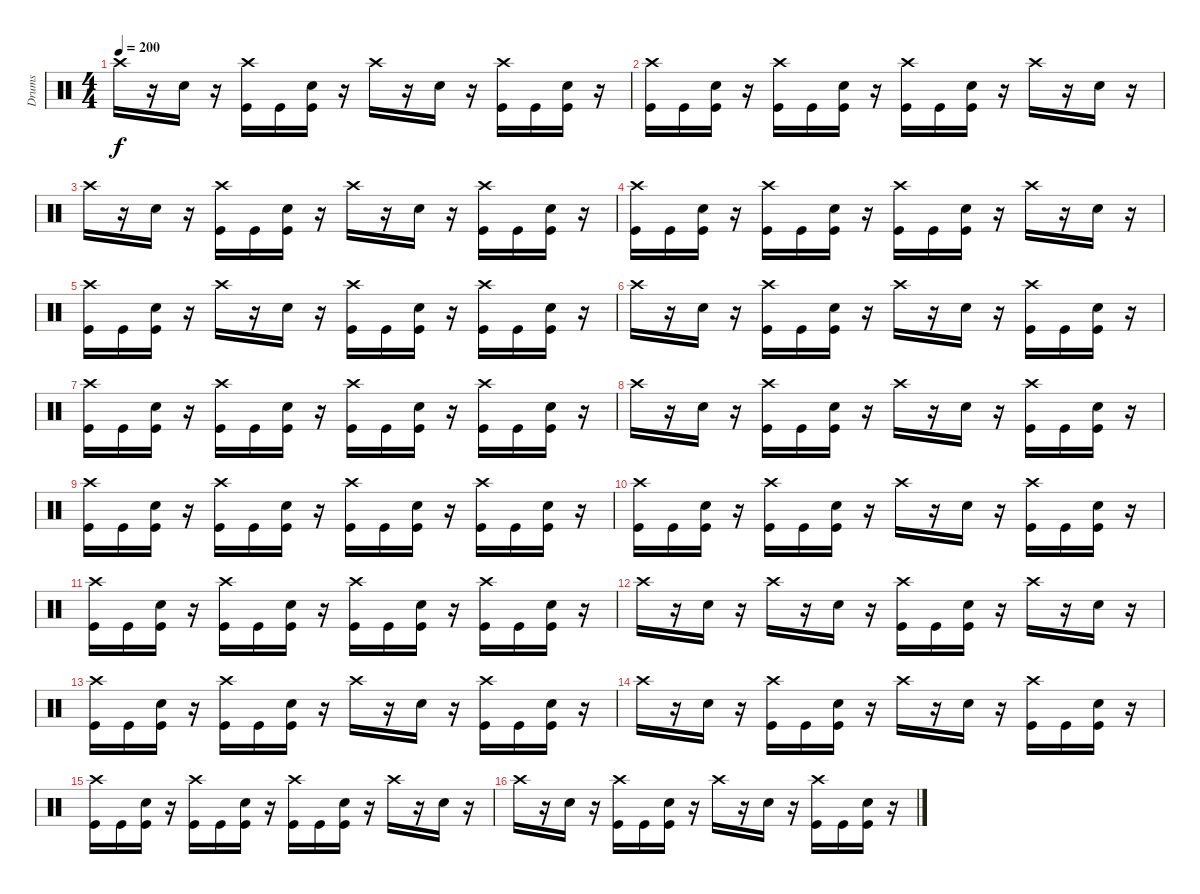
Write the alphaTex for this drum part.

\track ("Drums" "Drums") {instrument percussion}
\staff {score}
\articulation defaults
\ts (4 4)
\tempo 200
\clef neutral
\ks c "Crash high (hit)".16{dy f}
r.16 "Snare (hit) 2".16 r.16 ("Crash high (hit)" "Kick (hit)").16 "Kick (hit)".16 ("Snare (hit) 2" "Kick (hit)").16 r.16 "Crash high (hit)".16 r.16 "Snare (hit) 2".16 r.16 ("Crash high (hit)" "Kick (hit)").16 "Kick (hit)".16 ("Snare (hit) 2" "Kick (hit)").16 r.16 |
("Crash high (hit)" "Kick (hit)").16 "Kick (hit)".16 ("Snare (hit) 2" "Kick (hit)").16 r.16 ("Crash high (hit)" "Kick (hit)").16 "Kick (hit)".16 ("Snare (hit) 2" "Kick (hit)").16 r.16 ("Crash high (hit)" "Kick (hit)").16 "Kick (hit)".16 ("Snare (hit) 2" "Kick (hit)").16 r.16 "Crash high (hit)".16 r.16 "Snare (hit) 2".16 r.16 |
"Crash high (hit)".16 r.16 "Snare (hit) 2".16 r.16 ("Crash high (hit)" "Kick (hit)").16 "Kick (hit)".16 ("Snare (hit) 2" "Kick (hit)").16 r.16 "Crash high (hit)".16 r.16 "Snare (hit) 2".16 r.16 ("Crash high (hit)" "Kick (hit)").16 "Kick (hit)".16 ("Snare (hit) 2" "Kick (hit)").16 r.16 |
("Crash high (hit)" "Kick (hit)").16 "Kick (hit)".16 ("Snare (hit) 2" "Kick (hit)").16 r.16 ("Crash high (hit)" "Kick (hit)").16 "Kick (hit)".16 ("Snare (hit) 2" "Kick (hit)").16 r.16 ("Crash high (hit)" "Kick (hit)").16 "Kick (hit)".16 ("Snare (hit) 2" "Kick (hit)").16 r.16 "Crash high (hit)".16 r.16 "Snare (hit) 2".16 r.16 |
("Crash high (hit)" "Kick (hit)").16 "Kick (hit)".16 ("Snare (hit) 2" "Kick (hit)").16 r.16 "Crash high (hit)".16 r.16 "Snare (hit) 2".16 r.16 ("Crash high (hit)" "Kick (hit)").16 "Kick (hit)".16 ("Snare (hit) 2" "Kick (hit)").16 r.16 ("Crash high (hit)" "Kick (hit)").16 "Kick (hit)".16 ("Snare (hit) 2" "Kick (hit)").16 r.16 |
"Crash high (hit)".16 r.16 "Snare (hit) 2".16 r.16 ("Crash high (hit)" "Kick (hit)").16 "Kick (hit)".16 ("Snare (hit) 2" "Kick (hit)").16 r.16 "Crash high (hit)".16 r.16 "Snare (hit) 2".16 r.16 ("Crash high (hit)" "Kick (hit)").16 "Kick (hit)".16 ("Snare (hit) 2" "Kick (hit)").16 r.16 |
("Crash high (hit)" "Kick (hit)").16 "Kick (hit)".16 ("Snare (hit) 2" "Kick (hit)").16 r.16 ("Crash high (hit)" "Kick (hit)").16 "Kick (hit)".16 ("Snare (hit) 2" "Kick (hit)").16 r.16 ("Crash high (hit)" "Kick (hit)").16 "Kick (hit)".16 ("Snare (hit) 2" "Kick (hit)").16 r.16 ("Crash high (hit)" "Kick (hit)").16 "Kick (hit)".16 ("Snare (hit) 2" "Kick (hit)").16 r.16 |
"Crash high (hit)".16 r.16 "Snare (hit) 2".16 r.16 ("Crash high (hit)" "Kick (hit)").16 "Kick (hit)".16 ("Snare (hit) 2" "Kick (hit)").16 r.16 "Crash high (hit)".16 r.16 "Snare (hit) 2".16 r.16 ("Crash high (hit)" "Kick (hit)").16 "Kick (hit)".16 ("Snare (hit) 2" "Kick (hit)").16 r.16 |
("Crash high (hit)" "Kick (hit)").16 "Kick (hit)".16 ("Snare (hit) 2" "Kick (hit)").16 r.16 ("Crash high (hit)" "Kick (hit)").16 "Kick (hit)".16 ("Snare (hit) 2" "Kick (hit)").16 r.16 ("Crash high (hit)" "Kick (hit)").16 "Kick (hit)".16 ("Snare (hit) 2" "Kick (hit)").16 r.16 ("Crash high (hit)" "Kick (hit)").16 "Kick (hit)".16 ("Snare (hit) 2" "Kick (hit)").16 r.16 |
("Crash high (hit)" "Kick (hit)").16 "Kick (hit)".16 ("Snare (hit) 2" "Kick (hit)").16 r.16 ("Crash high (hit)" "Kick (hit)").16 "Kick (hit)".16 ("Snare (hit) 2" "Kick (hit)").16 r.16 "Crash high (hit)".16 r.16 "Snare (hit) 2".16 r.16 ("Crash high (hit)" "Kick (hit)").16 "Kick (hit)".16 ("Snare (hit) 2" "Kick (hit)").16 r.16 |
("Crash high (hit)" "Kick (hit)").16 "Kick (hit)".16 ("Snare (hit) 2" "Kick (hit)").16 r.16 ("Crash high (hit)" "Kick (hit)").16 "Kick (hit)".16 ("Snare (hit) 2" "Kick (hit)").16 r.16 ("Crash high (hit)" "Kick (hit)").16 "Kick (hit)".16 ("Snare (hit) 2" "Kick (hit)").16 r.16 ("Crash high (hit)" "Kick (hit)").16 "Kick (hit)".16 ("Snare (hit) 2" "Kick (hit)").16 r.16 |
"Crash high (hit)".16 r.16 "Snare (hit) 2".16 r.16 "Crash high (hit)".16 r.16 "Snare (hit) 2".16 r.16 ("Crash high (hit)" "Kick (hit)").16 "Kick (hit)".16 ("Snare (hit) 2" "Kick (hit)").16 r.16 "Crash high (hit)".16 r.16 "Snare (hit) 2".16 r.16 |
("Crash high (hit)" "Kick (hit)").16 "Kick (hit)".16 ("Snare (hit) 2" "Kick (hit)").16 r.16 ("Crash high (hit)" "Kick (hit)").16 "Kick (hit)".16 ("Snare (hit) 2" "Kick (hit)").16 r.16 "Crash high (hit)".16 r.16 "Snare (hit) 2".16 r.16 ("Crash high (hit)" "Kick (hit)").16 "Kick (hit)".16 ("Snare (hit) 2" "Kick (hit)").16 r.16 |
"Crash high (hit)".16 r.16 "Snare (hit) 2".16 r.16 ("Crash high (hit)" "Kick (hit)").16 "Kick (hit)".16 ("Snare (hit) 2" "Kick (hit)").16 r.16 "Crash high (hit)".16 r.16 "Snare (hit) 2".16 r.16 ("Crash high (hit)" "Kick (hit)").16 "Kick (hit)".16 ("Snare (hit) 2" "Kick (hit)").16 r.16 |
("Crash high (hit)" "Kick (hit)").16 "Kick (hit)".16 ("Snare (hit) 2" "Kick (hit)").16 r.16 ("Crash high (hit)" "Kick (hit)").16 "Kick (hit)".16 ("Snare (hit) 2" "Kick (hit)").16 r.16 ("Crash high (hit)" "Kick (hit)").16 "Kick (hit)".16 ("Snare (hit) 2" "Kick (hit)").16 r.16 "Crash high (hit)".16 r.16 "Snare (hit) 2".16 r.16 |
"Crash high (hit)".16 r.16 "Snare (hit) 2".16 r.16 ("Crash high (hit)" "Kick (hit)").16 "Kick (hit)".16 ("Snare (hit) 2" "Kick (hit)").16 r.16 "Crash high (hit)".16 r.16 "Snare (hit) 2".16 r.16 ("Crash high (hit)" "Kick (hit)").16 "Kick (hit)".16 ("Snare (hit) 2" "Kick (hit)").16 r.16
